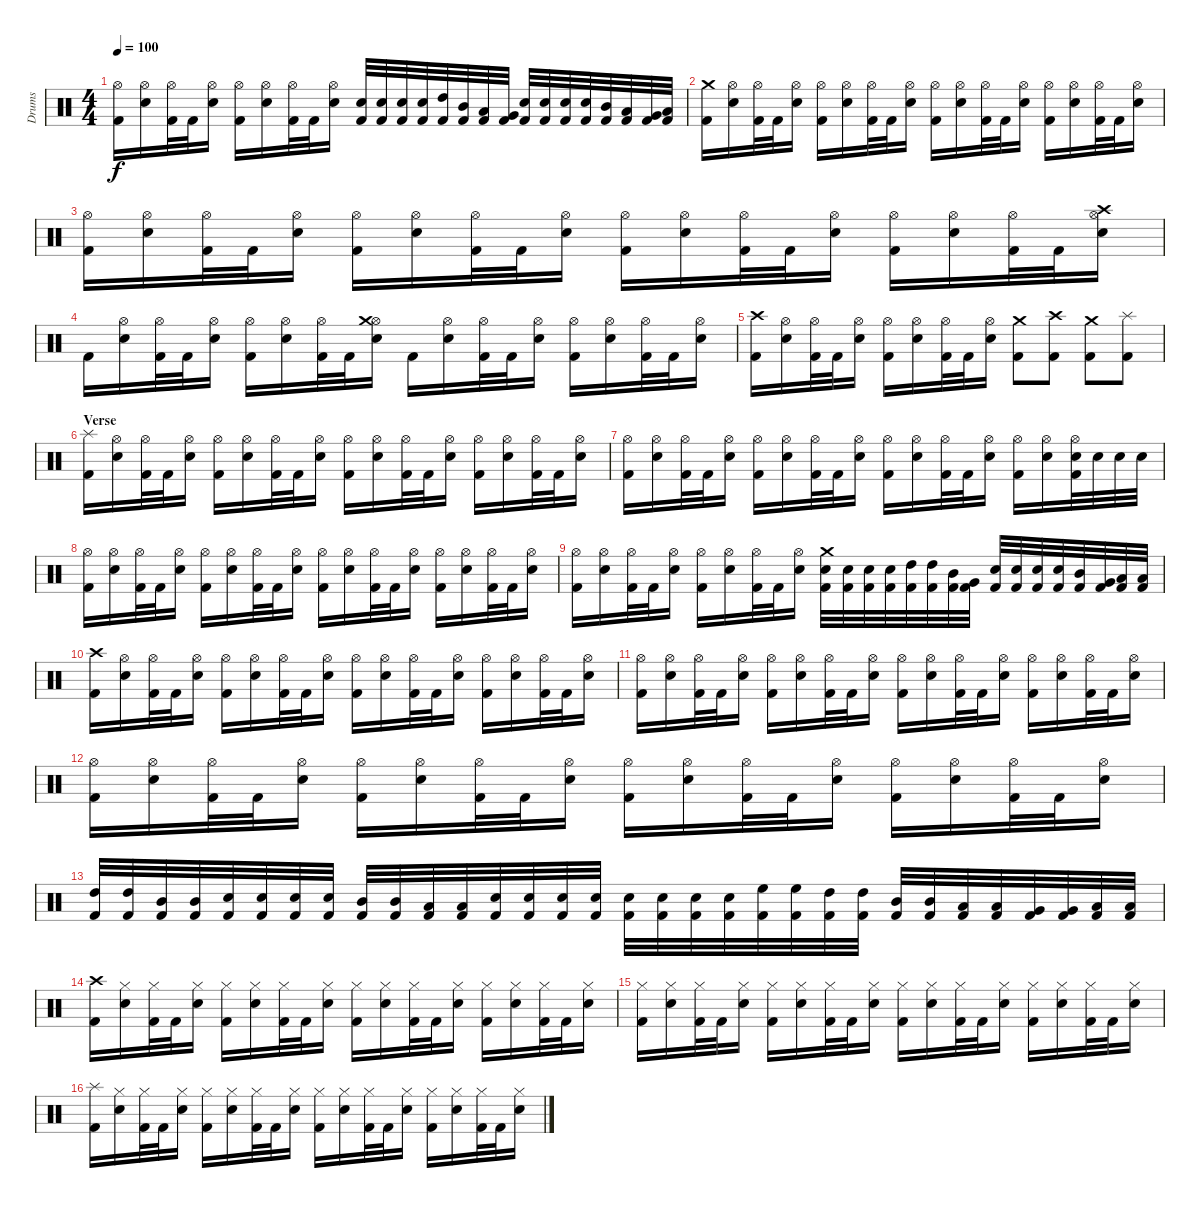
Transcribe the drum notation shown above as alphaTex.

\track ("Drums" "Drums") {instrument percussion}
\staff {score}
\articulation defaults
\ts (4 4)
\tempo 100
\clef neutral
\ks c
("Kick (hit) 2" "Hi-Hat (open)").16{dy f} ("Electric Snare (hit)" "Hi-Hat (open)").16 ("Kick (hit) 2" "Hi-Hat (open)").32 "Kick (hit) 2".32 ("Electric Snare (hit)" "Hi-Hat (open)").16 ("Kick (hit) 2" "Hi-Hat (open)").16 ("Electric Snare (hit)" "Hi-Hat (open)").16 ("Kick (hit) 2" "Hi-Hat (open)").32 "Kick (hit) 2".32 ("Electric Snare (hit)" "Hi-Hat (open)").16 ("Kick (hit) 2" "Electric Snare (hit)").32 ("Kick (hit) 2" "Electric Snare (hit)").32 ("Kick (hit) 2" "Electric Snare (hit)").32 ("Kick (hit) 2" "Electric Snare (hit)").32 ("Kick (hit) 2" "High Tom (hit)").32 ("Kick (hit) 2" "Mid Tom (hit)").32 ("Kick (hit) 2" "Low Tom (hit)").32 ("Kick (hit) 2" "Very Low Tom (hit)").32 ("Kick (hit) 2" "Electric Snare (hit)").32 ("Kick (hit) 2" "Electric Snare (hit)").32 ("Kick (hit) 2" "Electric Snare (hit)").32 ("Kick (hit) 2" "Electric Snare (hit)").32 ("Kick (hit) 2" "Mid Tom (hit)").32 ("Kick (hit) 2" "Low Tom (hit)").32 ("Kick (hit) 2" "Very Low Tom (hit)").32 ("Kick (hit) 2" "Low Floor Tom (hit)").32 |
("Kick (hit) 2" "Crash medium (hit)").16 ("Electric Snare (hit)" "Hi-Hat (open)").16 ("Kick (hit) 2" "Hi-Hat (open)").32 "Kick (hit) 2".32 ("Electric Snare (hit)" "Hi-Hat (open)").16 ("Kick (hit) 2" "Hi-Hat (open)").16 ("Electric Snare (hit)" "Hi-Hat (open)").16 ("Kick (hit) 2" "Hi-Hat (open)").32 "Kick (hit) 2".32 ("Electric Snare (hit)" "Hi-Hat (open)").16 ("Kick (hit) 2" "Hi-Hat (open)").16 ("Electric Snare (hit)" "Hi-Hat (open)").16 ("Kick (hit) 2" "Hi-Hat (open)").32 "Kick (hit) 2".32 ("Electric Snare (hit)" "Hi-Hat (open)").16 ("Kick (hit) 2" "Hi-Hat (open)").16 ("Electric Snare (hit)" "Hi-Hat (open)").16 ("Kick (hit) 2" "Hi-Hat (open)").32 "Kick (hit) 2".32 ("Electric Snare (hit)" "Hi-Hat (open)").16 |
("Kick (hit) 2" "Hi-Hat (open)").16 ("Electric Snare (hit)" "Hi-Hat (open)").16 ("Kick (hit) 2" "Hi-Hat (open)").32 "Kick (hit) 2".32 ("Electric Snare (hit)" "Hi-Hat (open)").16 ("Kick (hit) 2" "Hi-Hat (open)").16 ("Electric Snare (hit)" "Hi-Hat (open)").16 ("Kick (hit) 2" "Hi-Hat (open)").32 "Kick (hit) 2".32 ("Electric Snare (hit)" "Hi-Hat (open)").16 ("Kick (hit) 2" "Hi-Hat (open)").16 ("Electric Snare (hit)" "Hi-Hat (open)").16 ("Kick (hit) 2" "Hi-Hat (open)").32 "Kick (hit) 2".32 ("Electric Snare (hit)" "Hi-Hat (open)").16 ("Kick (hit) 2" "Hi-Hat (open)").16 ("Electric Snare (hit)" "Hi-Hat (open)").16 ("Kick (hit) 2" "Hi-Hat (open)").32 "Kick (hit) 2".32 ("Electric Snare (hit)" "Hi-Hat (open)" "Crash high (hit)").16 |
"Kick (hit) 2".16 ("Electric Snare (hit)" "Hi-Hat (open)").16 ("Kick (hit) 2" "Hi-Hat (open)").32 "Kick (hit) 2".32 ("Electric Snare (hit)" "Hi-Hat (open)").16 ("Kick (hit) 2" "Hi-Hat (open)").16 ("Electric Snare (hit)" "Hi-Hat (open)").16 ("Kick (hit) 2" "Hi-Hat (open)").32 "Kick (hit) 2".32 ("Electric Snare (hit)" "Hi-Hat (open)" "Crash medium (hit)").16 "Kick (hit) 2".16 ("Electric Snare (hit)" "Hi-Hat (open)").16 ("Kick (hit) 2" "Hi-Hat (open)").32 "Kick (hit) 2".32 ("Electric Snare (hit)" "Hi-Hat (open)").16 ("Kick (hit) 2" "Hi-Hat (open)").16 ("Electric Snare (hit)" "Hi-Hat (open)").16 ("Kick (hit) 2" "Hi-Hat (open)").32 "Kick (hit) 2".32 ("Electric Snare (hit)" "Hi-Hat (open)").16 |
("Kick (hit) 2" "Crash high (hit)").16 ("Electric Snare (hit)" "Hi-Hat (open)").16 ("Kick (hit) 2" "Hi-Hat (open)").32 "Kick (hit) 2".32 ("Electric Snare (hit)" "Hi-Hat (open)").16 ("Kick (hit) 2" "Hi-Hat (open)").16 ("Electric Snare (hit)" "Hi-Hat (open)").16 ("Kick (hit) 2" "Hi-Hat (open)").32 "Kick (hit) 2".32 ("Electric Snare (hit)" "Hi-Hat (open)").16 ("Kick (hit) 2" "Crash medium (hit)").8 ("Kick (hit) 2" "Crash high (hit)").8 ("Kick (hit) 2" "Crash medium (hit)").8 ("Kick (hit) 2" "Splash (hit)").8 |
\section ("" "Verse")
("Kick (hit) 2" "Splash (hit)").16 ("Electric Snare (hit)" "Hi-Hat (open)").16 ("Kick (hit) 2" "Hi-Hat (open)").32 "Kick (hit) 2".32 ("Electric Snare (hit)" "Hi-Hat (open)").16 ("Kick (hit) 2" "Hi-Hat (open)").16 ("Electric Snare (hit)" "Hi-Hat (open)").16 ("Kick (hit) 2" "Hi-Hat (open)").32 "Kick (hit) 2".32 ("Electric Snare (hit)" "Hi-Hat (open)").16 ("Kick (hit) 2" "Hi-Hat (open)").16 ("Electric Snare (hit)" "Hi-Hat (open)").16 ("Kick (hit) 2" "Hi-Hat (open)").32 "Kick (hit) 2".32 ("Electric Snare (hit)" "Hi-Hat (open)").16 ("Kick (hit) 2" "Hi-Hat (open)").16 ("Electric Snare (hit)" "Hi-Hat (open)").16 ("Kick (hit) 2" "Hi-Hat (open)").32 "Kick (hit) 2".32 ("Electric Snare (hit)" "Hi-Hat (open)").16 |
("Kick (hit) 2" "Hi-Hat (open)").16 ("Electric Snare (hit)" "Hi-Hat (open)").16 ("Kick (hit) 2" "Hi-Hat (open)").32 "Kick (hit) 2".32 ("Electric Snare (hit)" "Hi-Hat (open)").16 ("Kick (hit) 2" "Hi-Hat (open)").16 ("Electric Snare (hit)" "Hi-Hat (open)").16 ("Kick (hit) 2" "Hi-Hat (open)").32 "Kick (hit) 2".32 ("Electric Snare (hit)" "Hi-Hat (open)").16 ("Kick (hit) 2" "Hi-Hat (open)").16 ("Electric Snare (hit)" "Hi-Hat (open)").16 ("Kick (hit) 2" "Hi-Hat (open)").32 "Kick (hit) 2".32 ("Electric Snare (hit)" "Hi-Hat (open)").16 ("Kick (hit) 2" "Hi-Hat (open)").16 ("Electric Snare (hit)" "Hi-Hat (open)").16 ("Kick (hit) 2" "Electric Snare (hit)" "Hi-Hat (open)").32 "Electric Snare (hit)".32 "Electric Snare (hit)".32 "Electric Snare (hit)".32 |
("Kick (hit) 2" "Hi-Hat (open)").16 ("Electric Snare (hit)" "Hi-Hat (open)").16 ("Kick (hit) 2" "Hi-Hat (open)").32 "Kick (hit) 2".32 ("Electric Snare (hit)" "Hi-Hat (open)").16 ("Kick (hit) 2" "Hi-Hat (open)").16 ("Electric Snare (hit)" "Hi-Hat (open)").16 ("Kick (hit) 2" "Hi-Hat (open)").32 "Kick (hit) 2".32 ("Electric Snare (hit)" "Hi-Hat (open)").16 ("Kick (hit) 2" "Hi-Hat (open)").16 ("Electric Snare (hit)" "Hi-Hat (open)").16 ("Kick (hit) 2" "Hi-Hat (open)").32 "Kick (hit) 2".32 ("Electric Snare (hit)" "Hi-Hat (open)").16 ("Kick (hit) 2" "Hi-Hat (open)").16 ("Electric Snare (hit)" "Hi-Hat (open)").16 ("Kick (hit) 2" "Hi-Hat (open)").32 "Kick (hit) 2".32 ("Electric Snare (hit)" "Hi-Hat (open)").16 |
("Kick (hit) 2" "Hi-Hat (open)").16 ("Electric Snare (hit)" "Hi-Hat (open)").16 ("Kick (hit) 2" "Hi-Hat (open)").32 "Kick (hit) 2".32 ("Electric Snare (hit)" "Hi-Hat (open)").16 ("Kick (hit) 2" "Hi-Hat (open)").16 ("Electric Snare (hit)" "Hi-Hat (open)").16 ("Kick (hit) 2" "Hi-Hat (open)").32 "Kick (hit) 2".32 ("Electric Snare (hit)" "Hi-Hat (open)").16 ("Kick (hit) 2" "Electric Snare (hit)" "Crash medium (hit)").32 ("Kick (hit) 2" "Electric Snare (hit)").32 ("Kick (hit) 2" "Electric Snare (hit)").32 ("Kick (hit) 2" "Electric Snare (hit)").32 ("Kick (hit) 2" "High Tom (hit)").32 ("Kick (hit) 2" "High Tom (hit)").32 ("Kick (hit) 2" "Mid Tom (hit)").32 ("Kick (hit) 2" "Very Low Tom (hit)").32 ("Kick (hit) 2" "Electric Snare (hit)").32 ("Kick (hit) 2" "Electric Snare (hit)").32 ("Kick (hit) 2" "Electric Snare (hit)").32 ("Kick (hit) 2" "Electric Snare (hit)").32 ("Kick (hit) 2" "Mid Tom (hit)").32 ("Kick (hit) 2" "Very Low Tom (hit)").32 ("Kick (hit) 2" "Low Floor Tom (hit)").32 ("Kick (hit) 2" "Low Floor Tom (hit)").32 |
("Kick (hit) 2" "Crash high (hit)").16 ("Electric Snare (hit)" "Hi-Hat (open)").16 ("Kick (hit) 2" "Hi-Hat (open)").32 "Kick (hit) 2".32 ("Electric Snare (hit)" "Hi-Hat (open)").16 ("Kick (hit) 2" "Hi-Hat (open)").16 ("Electric Snare (hit)" "Hi-Hat (open)").16 ("Kick (hit) 2" "Hi-Hat (open)").32 "Kick (hit) 2".32 ("Electric Snare (hit)" "Hi-Hat (open)").16 ("Kick (hit) 2" "Hi-Hat (open)").16 ("Electric Snare (hit)" "Hi-Hat (open)").16 ("Kick (hit) 2" "Hi-Hat (open)").32 "Kick (hit) 2".32 ("Electric Snare (hit)" "Hi-Hat (open)").16 ("Kick (hit) 2" "Hi-Hat (open)").16 ("Electric Snare (hit)" "Hi-Hat (open)").16 ("Kick (hit) 2" "Hi-Hat (open)").32 "Kick (hit) 2".32 ("Electric Snare (hit)" "Hi-Hat (open)").16 |
("Kick (hit) 2" "Hi-Hat (open)").16 ("Electric Snare (hit)" "Hi-Hat (open)").16 ("Kick (hit) 2" "Hi-Hat (open)").32 "Kick (hit) 2".32 ("Electric Snare (hit)" "Hi-Hat (open)").16 ("Kick (hit) 2" "Hi-Hat (open)").16 ("Electric Snare (hit)" "Hi-Hat (open)").16 ("Kick (hit) 2" "Hi-Hat (open)").32 "Kick (hit) 2".32 ("Electric Snare (hit)" "Hi-Hat (open)").16 ("Kick (hit) 2" "Hi-Hat (open)").16 ("Electric Snare (hit)" "Hi-Hat (open)").16 ("Kick (hit) 2" "Hi-Hat (open)").32 "Kick (hit) 2".32 ("Electric Snare (hit)" "Hi-Hat (open)").16 ("Kick (hit) 2" "Hi-Hat (open)").16 ("Electric Snare (hit)" "Hi-Hat (open)").16 ("Kick (hit) 2" "Hi-Hat (open)").32 "Kick (hit) 2".32 ("Electric Snare (hit)" "Hi-Hat (open)").16 |
("Kick (hit) 2" "Hi-Hat (open)").16 ("Electric Snare (hit)" "Hi-Hat (open)").16 ("Kick (hit) 2" "Hi-Hat (open)").32 "Kick (hit) 2".32 ("Electric Snare (hit)" "Hi-Hat (open)").16 ("Kick (hit) 2" "Hi-Hat (open)").16 ("Electric Snare (hit)" "Hi-Hat (open)").16 ("Kick (hit) 2" "Hi-Hat (open)").32 "Kick (hit) 2".32 ("Electric Snare (hit)" "Hi-Hat (open)").16 ("Kick (hit) 2" "Hi-Hat (open)").16 ("Electric Snare (hit)" "Hi-Hat (open)").16 ("Kick (hit) 2" "Hi-Hat (open)").32 "Kick (hit) 2".32 ("Electric Snare (hit)" "Hi-Hat (open)").16 ("Kick (hit) 2" "Hi-Hat (open)").16 ("Electric Snare (hit)" "Hi-Hat (open)").16 ("Kick (hit) 2" "Hi-Hat (open)").32 "Kick (hit) 2".32 ("Electric Snare (hit)" "Hi-Hat (open)").16 |
("Kick (hit) 2" "High Tom (hit)").32 ("Kick (hit) 2" "High Tom (hit)").32 ("Kick (hit) 2" "Mid Tom (hit)").32 ("Kick (hit) 2" "Mid Tom (hit)").32 ("Kick (hit) 2" "Electric Snare (hit)").32 ("Kick (hit) 2" "Electric Snare (hit)").32 ("Kick (hit) 2" "Electric Snare (hit)").32 ("Kick (hit) 2" "Electric Snare (hit)").32 ("Kick (hit) 2" "Mid Tom (hit)").32 ("Kick (hit) 2" "Mid Tom (hit)").32 ("Kick (hit) 2" "Low Tom (hit)").32 ("Kick (hit) 2" "Low Tom (hit)").32 ("Kick (hit) 2" "Electric Snare (hit)").32 ("Kick (hit) 2" "Electric Snare (hit)").32 ("Kick (hit) 2" "Electric Snare (hit)").32 ("Kick (hit) 2" "Electric Snare (hit)").32 ("Kick (hit) 2" "Electric Snare (hit)").32 ("Kick (hit) 2" "Electric Snare (hit)").32 ("Kick (hit) 2" "Electric Snare (hit)").32 ("Kick (hit) 2" "Electric Snare (hit)").32 ("Kick (hit) 2" "High Floor Tom (hit)").32 ("Kick (hit) 2" "High Floor Tom (hit)").32 ("Kick (hit) 2" "High Tom (hit)").32 ("Kick (hit) 2" "High Tom (hit)").32 ("Kick (hit) 2" "Mid Tom (hit)").32 ("Kick (hit) 2" "Mid Tom (hit)").32 ("Kick (hit) 2" "Low Tom (hit)").32 ("Kick (hit) 2" "Low Tom (hit)").32 ("Kick (hit) 2" "Very Low Tom (hit)").32 ("Kick (hit) 2" "Very Low Tom (hit)").32 ("Kick (hit) 2" "Low Floor Tom (hit)").32 ("Kick (hit) 2" "Low Floor Tom (hit)").32 |
("Kick (hit) 2" "Crash high (hit)").16 ("Electric Snare (hit)" "Hi-Hat (closed)").16 ("Kick (hit) 2" "Hi-Hat (closed)").32 "Kick (hit) 2".32 ("Electric Snare (hit)" "Hi-Hat (closed)").16 ("Kick (hit) 2" "Hi-Hat (closed)").16 ("Electric Snare (hit)" "Hi-Hat (closed)").16 ("Kick (hit) 2" "Hi-Hat (closed)").32 "Kick (hit) 2".32 ("Electric Snare (hit)" "Hi-Hat (closed)").16 ("Kick (hit) 2" "Hi-Hat (closed)").16 ("Electric Snare (hit)" "Hi-Hat (closed)").16 ("Kick (hit) 2" "Hi-Hat (closed)").32 "Kick (hit) 2".32 ("Electric Snare (hit)" "Hi-Hat (closed)").16 ("Kick (hit) 2" "Hi-Hat (closed)").16 ("Electric Snare (hit)" "Hi-Hat (closed)").16 ("Kick (hit) 2" "Hi-Hat (closed)").32 "Kick (hit) 2".32 ("Electric Snare (hit)" "Hi-Hat (closed)").16 |
("Kick (hit) 2" "Hi-Hat (closed)").16 ("Electric Snare (hit)" "Hi-Hat (closed)").16 ("Kick (hit) 2" "Hi-Hat (closed)").32 "Kick (hit) 2".32 ("Electric Snare (hit)" "Hi-Hat (closed)").16 ("Kick (hit) 2" "Hi-Hat (closed)").16 ("Electric Snare (hit)" "Hi-Hat (closed)").16 ("Kick (hit) 2" "Hi-Hat (closed)").32 "Kick (hit) 2".32 ("Electric Snare (hit)" "Hi-Hat (closed)").16 ("Kick (hit) 2" "Hi-Hat (closed)").16 ("Electric Snare (hit)" "Hi-Hat (closed)").16 ("Kick (hit) 2" "Hi-Hat (closed)").32 "Kick (hit) 2".32 ("Electric Snare (hit)" "Hi-Hat (closed)").16 ("Kick (hit) 2" "Hi-Hat (closed)").16 ("Electric Snare (hit)" "Hi-Hat (closed)").16 ("Kick (hit) 2" "Hi-Hat (closed)").32 "Kick (hit) 2".32 ("Electric Snare (hit)" "Hi-Hat (closed)").16 |
("Kick (hit) 2" "Splash (hit)").16 ("Electric Snare (hit)" "Hi-Hat (closed)").16 ("Kick (hit) 2" "Hi-Hat (closed)").32 "Kick (hit) 2".32 ("Electric Snare (hit)" "Hi-Hat (closed)").16 ("Kick (hit) 2" "Hi-Hat (closed)").16 ("Electric Snare (hit)" "Hi-Hat (closed)").16 ("Kick (hit) 2" "Hi-Hat (closed)").32 "Kick (hit) 2".32 ("Electric Snare (hit)" "Hi-Hat (closed)").16 ("Kick (hit) 2" "Hi-Hat (closed)").16 ("Electric Snare (hit)" "Hi-Hat (closed)").16 ("Kick (hit) 2" "Hi-Hat (closed)").32 "Kick (hit) 2".32 ("Electric Snare (hit)" "Hi-Hat (closed)").16 ("Kick (hit) 2" "Hi-Hat (closed)").16 ("Electric Snare (hit)" "Hi-Hat (closed)").16 ("Kick (hit) 2" "Hi-Hat (closed)").32 "Kick (hit) 2".32 ("Electric Snare (hit)" "Hi-Hat (closed)").16
